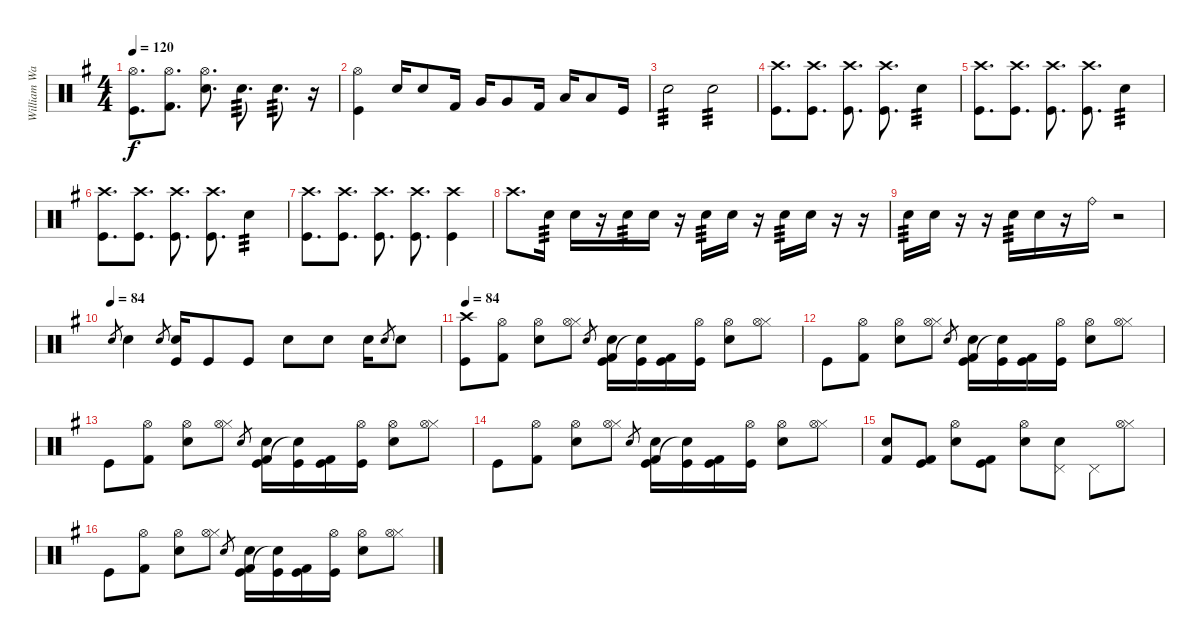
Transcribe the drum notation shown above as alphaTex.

\track ("William Ward" "William Wa") {instrument percussion}
\staff {score}
\articulation defaults
\ts (4 4)
\tempo 120
\clef neutral
\ks g
("Kick (hit)" "Hi-Hat (open)").8{d dy f} ("Kick (hit) 2" "Hi-Hat (open)").8{d} ("Electric Snare (hit)" "Hi-Hat (open)").8{d} "Electric Snare (hit)".8{d tp 3} "Electric Snare (hit)".8{d tp 3} r.16 |
("Kick (hit)" "Hi-Hat (open)").4 "Electric Snare (hit)".16 "Electric Snare (hit)".8 "Kick (hit) 2".16 "Very Low Tom (hit)".16 "Very Low Tom (hit)".8 "Kick (hit) 2".16 "Low Floor Tom (hit)".16 "Low Floor Tom (hit)".8 "Kick (hit)".16 |
"Snare (hit) 2".2{tp 3} "Electric Snare (hit)".2{tp 3} |
("Kick (hit)" "Crash high (hit)").8{d} ("Kick (hit)" "Crash high (hit)").8{d} ("Kick (hit)" "Crash high (hit)").8{d} ("Kick (hit)" "Crash high (hit)").8{d} "Electric Snare (hit)".4{tp 3} |
("Kick (hit)" "Crash high (hit)").8{d} ("Kick (hit)" "Crash high (hit)").8{d} ("Kick (hit)" "Crash high (hit)").8{d} ("Kick (hit)" "Crash high (hit)").8{d} "Electric Snare (hit)".4{tp 3} |
("Kick (hit)" "Crash high (hit)").8{d} ("Kick (hit)" "Crash high (hit)").8{d} ("Kick (hit)" "Crash high (hit)").8{d} ("Kick (hit)" "Crash high (hit)").8{d} "Electric Snare (hit)".4{tp 3} |
("Kick (hit)" "Crash high (hit)").8{d} ("Kick (hit)" "Crash high (hit)").8{d} ("Kick (hit)" "Crash high (hit)").8{d} ("Kick (hit)" "Crash high (hit)").8{d} ("Kick (hit)" "Crash high (hit)").4 |
"Crash high (hit)".8{d} "Snare (hit) 2".16{tp 3} "Electric Snare (hit)".16 r.16 "Snare (hit) 2".16{tp 3} "Electric Snare (hit)".16 r.16 "Snare (hit) 2".16{tp 3} "Electric Snare (hit)".16 r.16 "Snare (hit) 2".16{tp 3} "Electric Snare (hit)".16 r.16 r.16 |
"Snare (hit) 2".16{tp 3} "Electric Snare (hit)".16 r.16 r.16 "Snare (hit) 2".16{tp 3} "Electric Snare (hit)".16 r.16 "Ride (bell)".16 r.2 |
\tempo (84)
"Electric Snare (hit)".8{gr} "Electric Snare (hit)".4 "Snare (hit) 2".8{gr} ("Snare (hit) 2" "Kick (hit)").16 "Kick (hit)".8 "Kick (hit)".8 "Electric Snare (hit)".8 "Electric Snare (hit)".8 "Electric Snare (hit)".16 "Electric Snare (hit)".8{gr} "Electric Snare (hit)".8 |
\tempo 84
("Kick (hit)" "Crash high (hit)").8 ("Kick (hit) 2" "Hi-Hat (open)").8 ("Hi-Hat (open)" "Electric Snare (hit)").8 ("Hi-Hat (closed)" "Hi-Hat (open)").8 "Electric Snare (hit)".8{gr} ("Kick (hit) 2" "Kick (hit)" "Electric Snare (hit)").16 ("Kick (hit)" "Electric Snare (hit)"{t}).16 ("Kick (hit) 2" "Kick (hit)").16 ("Hi-Hat (open)" "Kick (hit)").16 ("Hi-Hat (open)" "Electric Snare (hit)").8 ("Hi-Hat (closed)" "Hi-Hat (open)").8 |
"Kick (hit)".8 ("Kick (hit) 2" "Hi-Hat (open)").8 ("Hi-Hat (open)" "Electric Snare (hit)").8 ("Hi-Hat (closed)" "Hi-Hat (open)").8 "Electric Snare (hit)".8{gr} ("Kick (hit) 2" "Kick (hit)" "Electric Snare (hit)").16 ("Kick (hit)" "Electric Snare (hit)"{t}).16 ("Kick (hit) 2" "Kick (hit)").16 ("Hi-Hat (open)" "Kick (hit)").16 ("Hi-Hat (open)" "Electric Snare (hit)").8 ("Hi-Hat (closed)" "Hi-Hat (open)").8 |
"Kick (hit)".8 ("Kick (hit) 2" "Hi-Hat (open)").8 ("Hi-Hat (open)" "Electric Snare (hit)").8 ("Hi-Hat (closed)" "Hi-Hat (open)").8 "Electric Snare (hit)".8{gr} ("Kick (hit) 2" "Kick (hit)" "Electric Snare (hit)").16 ("Kick (hit)" "Electric Snare (hit)"{t}).16 ("Kick (hit) 2" "Kick (hit)").16 ("Hi-Hat (open)" "Kick (hit)").16 ("Hi-Hat (open)" "Electric Snare (hit)").8 ("Hi-Hat (closed)" "Hi-Hat (open)").8 |
"Kick (hit)".8 ("Kick (hit) 2" "Hi-Hat (open)").8 ("Hi-Hat (open)" "Electric Snare (hit)").8 ("Hi-Hat (closed)" "Hi-Hat (open)").8 "Electric Snare (hit)".8{gr} ("Kick (hit) 2" "Kick (hit)" "Electric Snare (hit)").16 ("Kick (hit)" "Electric Snare (hit)"{t}).16 ("Kick (hit) 2" "Kick (hit)").16 ("Hi-Hat (open)" "Kick (hit)").16 ("Hi-Hat (open)" "Electric Snare (hit)").8 ("Hi-Hat (closed)" "Hi-Hat (open)").8 |
("Kick (hit) 2" "Electric Snare (hit)").8 ("Kick (hit) 2" "Kick (hit)").8 ("Hi-Hat (open)" "Electric Snare (hit)").8 ("Kick (hit) 2" "Kick (hit)").8 ("Hi-Hat (open)" "Electric Snare (hit)").8 ("Pedal Hi-Hat (hit)" "Snare (hit) 2").8 "Pedal Hi-Hat (hit)".8 ("Hi-Hat (closed)" "Hi-Hat (open)").8 |
"Kick (hit)".8 ("Kick (hit) 2" "Hi-Hat (open)").8 ("Hi-Hat (open)" "Electric Snare (hit)").8 ("Hi-Hat (closed)" "Hi-Hat (open)").8 "Electric Snare (hit)".8{gr} ("Kick (hit) 2" "Kick (hit)" "Electric Snare (hit)").16 ("Kick (hit)" "Electric Snare (hit)"{t}).16 ("Kick (hit) 2" "Kick (hit)").16 ("Hi-Hat (open)" "Kick (hit)").16 ("Hi-Hat (open)" "Electric Snare (hit)").8 ("Hi-Hat (closed)" "Hi-Hat (open)").8
